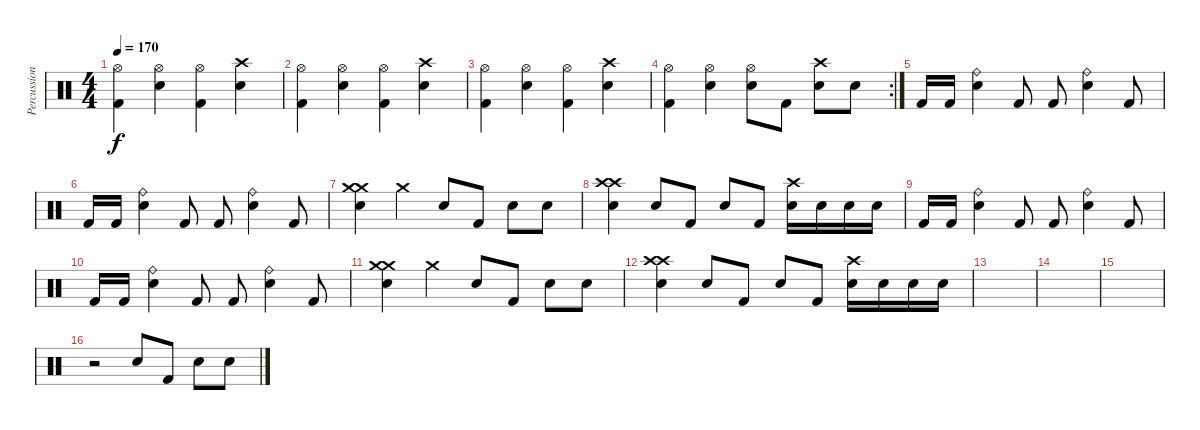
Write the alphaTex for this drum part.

\track ("Percussion" "Percussion") {instrument percussion}
\staff {score}
\articulation defaults
\ts (4 4)
\tempo 170
\clef neutral
\ks c
("Hi-Hat (open)" "Kick (hit) 2").4{dy f} ("Hi-Hat (open)" "Electric Snare (hit)").4 ("Hi-Hat (open)" "Kick (hit) 2").4 ("Crash high (hit)" "Electric Snare (hit)").4 |
("Hi-Hat (open)" "Kick (hit) 2").4 ("Hi-Hat (open)" "Electric Snare (hit)").4 ("Hi-Hat (open)" "Kick (hit) 2").4 ("Crash high (hit)" "Electric Snare (hit)").4 |
("Hi-Hat (open)" "Kick (hit) 2").4 ("Hi-Hat (open)" "Electric Snare (hit)").4 ("Hi-Hat (open)" "Kick (hit) 2").4 ("Crash high (hit)" "Electric Snare (hit)").4 |
\rc 2
("Hi-Hat (open)" "Kick (hit) 2").4 ("Hi-Hat (open)" "Electric Snare (hit)").4 ("Hi-Hat (open)" "Electric Snare (hit)").8 "Kick (hit) 2".8 ("Crash high (hit)" "Electric Snare (hit)").8 "Electric Snare (hit)".8 |
"Kick (hit) 2".16 "Kick (hit) 2".16 ("Ride (bell)" "Electric Snare (hit)").4 "Kick (hit) 2".8 "Kick (hit) 2".8 ("Ride (bell)" "Electric Snare (hit)").4 "Kick (hit) 2".8 |
"Kick (hit) 2".16 "Kick (hit) 2".16 ("Ride (bell)" "Electric Snare (hit)").4 "Kick (hit) 2".8 "Kick (hit) 2".8 ("Ride (bell)" "Electric Snare (hit)").4 "Kick (hit) 2".8 |
("Crash medium (hit)" "Crash medium (hit)" "Electric Snare (hit)").4 "Crash medium (hit)".4 "Electric Snare (hit)".8 "Kick (hit) 2".8 "Electric Snare (hit)".8 "Electric Snare (hit)".8 |
("Crash high (hit)" "Crash high (hit)" "Electric Snare (hit)").4 "Electric Snare (hit)".8 "Kick (hit) 2".8 "Electric Snare (hit)".8 "Kick (hit) 2".8 ("Crash high (hit)" "Electric Snare (hit)").16 "Electric Snare (hit)".16 "Electric Snare (hit)".16 "Electric Snare (hit)".16 |
"Kick (hit) 2".16 "Kick (hit) 2".16 ("Ride (bell)" "Electric Snare (hit)").4 "Kick (hit) 2".8 "Kick (hit) 2".8 ("Ride (bell)" "Electric Snare (hit)").4 "Kick (hit) 2".8 |
"Kick (hit) 2".16 "Kick (hit) 2".16 ("Ride (bell)" "Electric Snare (hit)").4 "Kick (hit) 2".8 "Kick (hit) 2".8 ("Ride (bell)" "Electric Snare (hit)").4 "Kick (hit) 2".8 |
("Crash medium (hit)" "Crash medium (hit)" "Electric Snare (hit)").4 "Crash medium (hit)".4 "Electric Snare (hit)".8 "Kick (hit) 2".8 "Electric Snare (hit)".8 "Electric Snare (hit)".8 |
("Crash high (hit)" "Crash high (hit)" "Electric Snare (hit)").4 "Electric Snare (hit)".8 "Kick (hit) 2".8 "Electric Snare (hit)".8 "Kick (hit) 2".8 ("Crash high (hit)" "Electric Snare (hit)").16 "Electric Snare (hit)".16 "Electric Snare (hit)".16 "Electric Snare (hit)".16 |
|
|
|
r.2 "Electric Snare (hit)".8 "Kick (hit) 2".8 "Electric Snare (hit)".8 "Electric Snare (hit)".8
